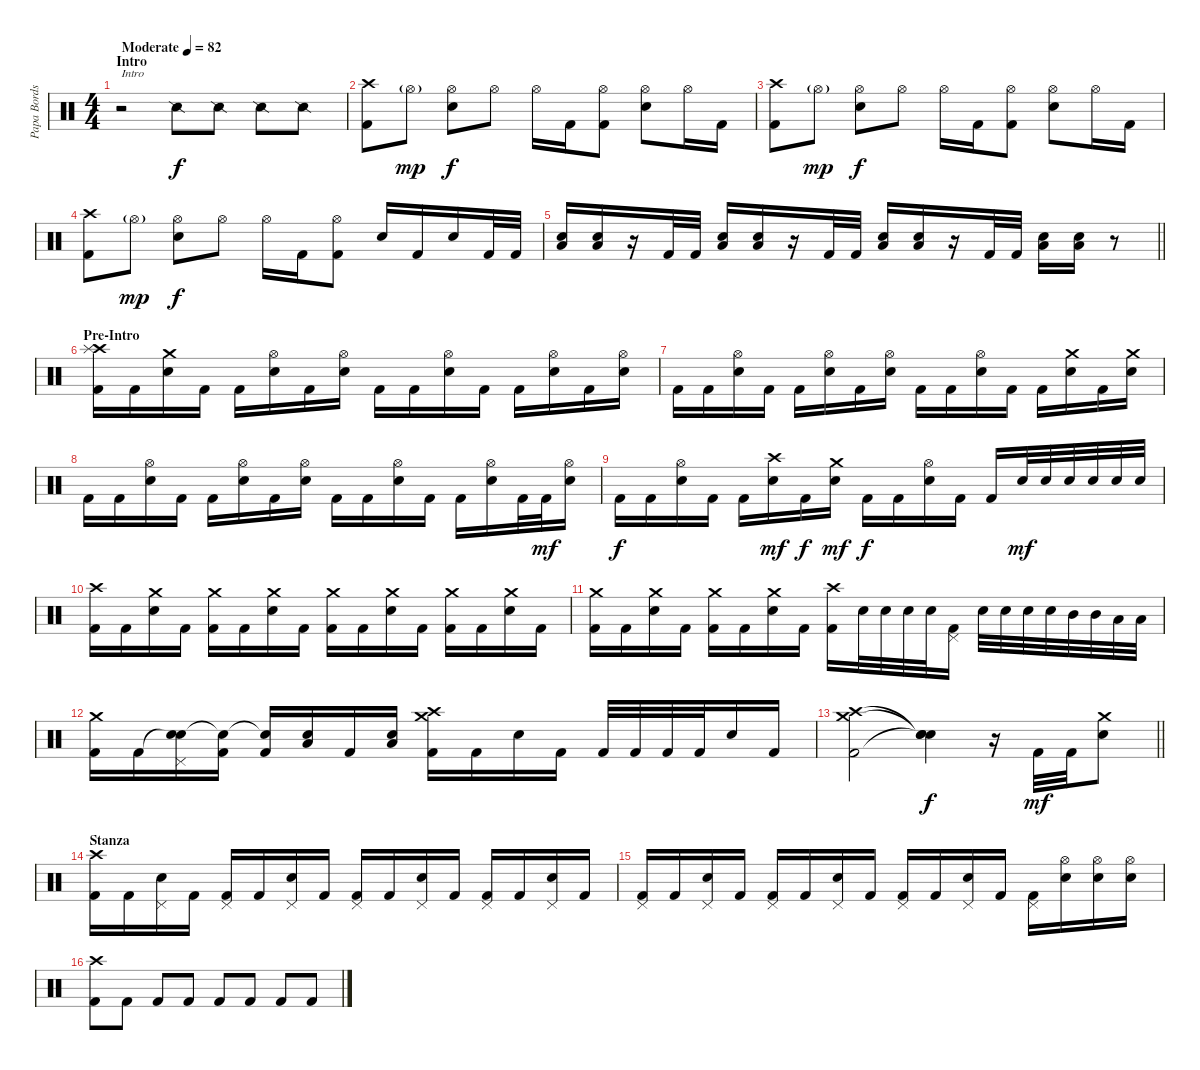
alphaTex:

\track ("Papa Bords" "Papa Bords") {instrument percussion}
\staff {score}
\articulation defaults
\ts (4 4)
\section ("" "Intro")
\tempo (82 "Moderate")
\clef neutral
\ks c
r.2{txt "Intro" dy f} "Snare (side stick) 2".8 "Snare (side stick) 2".8 "Snare (side stick) 2".8 "Snare (side stick) 2".8 |
("Crash high (hit)" "Kick (hit) 2").8 "Hi-Hat (open)"{g}.8{dy mp} ("Hi-Hat (open)" "Electric Snare (hit)").8{dy f} "Hi-Hat (open)".8 "Hi-Hat (open)".16 "Kick (hit) 2".16 ("Hi-Hat (open)" "Kick (hit) 2").8 ("Hi-Hat (open)" "Electric Snare (hit)").8 "Hi-Hat (open)".16 "Kick (hit) 2".16 |
("Crash high (hit)" "Kick (hit) 2").8 "Hi-Hat (open)"{g}.8{dy mp} ("Hi-Hat (open)" "Electric Snare (hit)").8{dy f} "Hi-Hat (open)".8 "Hi-Hat (open)".16 "Kick (hit) 2".16 ("Hi-Hat (open)" "Kick (hit) 2").8 ("Hi-Hat (open)" "Electric Snare (hit)").8 "Hi-Hat (open)".16 "Kick (hit) 2".16 |
("Crash high (hit)" "Kick (hit) 2").8 "Hi-Hat (open)"{g}.8{dy mp} ("Hi-Hat (open)" "Electric Snare (hit)").8{dy f} "Hi-Hat (open)".8 "Hi-Hat (open)".16 "Kick (hit) 2".16 ("Hi-Hat (open)" "Kick (hit) 2").8 "Electric Snare (hit)".16 "Kick (hit) 2".16 "Electric Snare (hit)".16 "Kick (hit) 2".32 "Kick (hit) 2".32 |
\barLineRight lightlight
("Low Floor Tom (hit)" "Electric Snare (hit)").16 ("Low Floor Tom (hit)" "Electric Snare (hit)").16 r.16 "Kick (hit) 2".32 "Kick (hit) 2".32 ("Low Floor Tom (hit)" "Electric Snare (hit)").16 ("Low Floor Tom (hit)" "Electric Snare (hit)").16 r.16 "Kick (hit) 2".32 "Kick (hit) 2".32 ("Low Floor Tom (hit)" "Electric Snare (hit)").16 ("Low Floor Tom (hit)" "Electric Snare (hit)").16 r.16 "Kick (hit) 2".32 "Kick (hit) 2".32 ("Low Floor Tom (hit)" "Electric Snare (hit)").16 ("Low Floor Tom (hit)" "Electric Snare (hit)").16 r.8 |
\section ("" "Pre-Intro")
("Crash high (hit)" "Splash (hit)" "Kick (hit) 2").16 "Kick (hit) 2".16 ("Crash medium (hit)" "Electric Snare (hit)").16 "Kick (hit) 2".16 "Kick (hit) 2".16 ("Hi-Hat (open)" "Electric Snare (hit)").16 "Kick (hit) 2".16 ("Hi-Hat (open)" "Electric Snare (hit)").16 "Kick (hit) 2".16 "Kick (hit) 2".16 ("Hi-Hat (open)" "Electric Snare (hit)").16 "Kick (hit) 2".16 "Kick (hit) 2".16 ("Hi-Hat (open)" "Electric Snare (hit)").16 "Kick (hit) 2".16 ("Hi-Hat (open)" "Electric Snare (hit)").16 |
"Kick (hit) 2".16 "Kick (hit) 2".16 ("Hi-Hat (open)" "Electric Snare (hit)").16 "Kick (hit) 2".16 "Kick (hit) 2".16 ("Hi-Hat (open)" "Electric Snare (hit)").16 "Kick (hit) 2".16 ("Hi-Hat (open)" "Electric Snare (hit)").16 "Kick (hit) 2".16 "Kick (hit) 2".16 ("Hi-Hat (open)" "Electric Snare (hit)").16 "Kick (hit) 2".16 "Kick (hit) 2".16 ("Crash medium (hit)" "Electric Snare (hit)").16 "Kick (hit) 2".16 ("Crash medium (hit)" "Electric Snare (hit)").16 |
"Kick (hit) 2".16 "Kick (hit) 2".16 ("Hi-Hat (open)" "Electric Snare (hit)").16 "Kick (hit) 2".16 "Kick (hit) 2".16 ("Hi-Hat (open)" "Electric Snare (hit)").16 "Kick (hit) 2".16 ("Hi-Hat (open)" "Electric Snare (hit)").16 "Kick (hit) 2".16 "Kick (hit) 2".16 ("Hi-Hat (open)" "Electric Snare (hit)").16 "Kick (hit) 2".16 "Kick (hit) 2".16 ("Hi-Hat (open)" "Electric Snare (hit)").16 "Kick (hit) 2".32 "Kick (hit) 2".32{dy mf} ("Hi-Hat (open)" "Electric Snare (hit)").16 |
"Kick (hit) 2".16{dy f} "Kick (hit) 2".16 ("Hi-Hat (open)" "Electric Snare (hit)").16 "Kick (hit) 2".16 "Kick (hit) 2".16 ("Crash high (hit)" "Electric Snare (hit)").16{dy mf} "Kick (hit) 2".16{dy f} ("Crash medium (hit)" "Electric Snare (hit)").16{dy mf} "Kick (hit) 2".16{dy f} "Kick (hit) 2".16 ("Hi-Hat (open)" "Electric Snare (hit)").16 "Kick (hit) 2".16 "Kick (hit) 2".16 "Electric Snare (hit)".32{dy mf} "Electric Snare (hit)".32 "Electric Snare (hit)".32 "Electric Snare (hit)".32 "Electric Snare (hit)".32 "Electric Snare (hit)".32 |
("Crash high (hit)" "Kick (hit) 2").16 "Kick (hit) 2".16 ("Crash medium (hit)" "Electric Snare (hit)").16 "Kick (hit) 2".16 ("Crash medium (hit)" "Kick (hit) 2").16 "Kick (hit) 2".16 ("Crash medium (hit)" "Electric Snare (hit)").16 "Kick (hit) 2".16 ("Crash medium (hit)" "Kick (hit) 2").16 "Kick (hit) 2".16 ("Crash medium (hit)" "Electric Snare (hit)").16 "Kick (hit) 2".16 ("Crash medium (hit)" "Kick (hit) 2").16 "Kick (hit) 2".16 ("Crash medium (hit)" "Electric Snare (hit)").16 "Kick (hit) 2".16 |
("Crash medium (hit)" "Kick (hit) 2").16 "Kick (hit) 2".16 ("Crash medium (hit)" "Electric Snare (hit)").16 "Kick (hit) 2".16 ("Crash medium (hit)" "Kick (hit) 2").16 "Kick (hit) 2".16 ("Crash medium (hit)" "Electric Snare (hit)").16 "Kick (hit) 2".16 ("Crash high (hit)" "Kick (hit) 2").16 "Electric Snare (hit)".32 "Electric Snare (hit)".32 "Electric Snare (hit)".32 "Electric Snare (hit)".32 ("Pedal Hi-Hat (hit)" "Kick (hit) 2").16 "Electric Snare (hit)".32 "Electric Snare (hit)".32 "Electric Snare (hit)".32 "Electric Snare (hit)".32 "Mid Tom (hit)".32 "Mid Tom (hit)".32 "Low Tom (hit)".32 "Low Floor Tom (hit)".32 |
("Crash medium (hit)" "Kick (hit) 2").16 "Kick (hit) 2".16 ("Snare (hit)"{t} "Pedal Hi-Hat (hit)" "Electric Snare (hit)").16 ("Snare (hit)"{t} "Kick (hit) 2").16 ("Snare (hit)"{t} "Kick (hit) 2").16 ("Low Floor Tom (hit)" "Electric Snare (hit)").16 "Kick (hit) 2".16 ("Low Floor Tom (hit)" "Electric Snare (hit)").16 ("Crash high (hit)" "Crash medium (hit)" "Kick (hit) 2").16 "Kick (hit) 2".16 "Electric Snare (hit)".16 "Kick (hit) 2".16 "Kick (hit) 2".32 "Kick (hit) 2".32 "Kick (hit) 2".32 "Kick (hit) 2".32 "Electric Snare (hit)".16 "Kick (hit) 2".16 |
\barLineRight lightlight
("Crash high (hit)" "Crash medium (hit)" "Kick (hit) 2").2 ("Snare (hit)"{t} "Snare (hit)"{t} "Snare (hit)"{t}).4{dy f} r.16 "Kick (hit) 2".32{dy mf} "Kick (hit) 2".32 ("Crash medium (hit)" "Electric Snare (hit)").8 |
\section ("" "Stanza")
("Crash high (hit)" "Kick (hit) 2").16 "Kick (hit) 2".16 ("Pedal Hi-Hat (hit)" "Electric Snare (hit)").16 "Kick (hit) 2".16 ("Pedal Hi-Hat (hit)" "Kick (hit) 2").16 "Kick (hit) 2".16 ("Pedal Hi-Hat (hit)" "Electric Snare (hit)").16 "Kick (hit) 2".16 ("Pedal Hi-Hat (hit)" "Kick (hit) 2").16 "Kick (hit) 2".16 ("Pedal Hi-Hat (hit)" "Electric Snare (hit)").16 "Kick (hit) 2".16 ("Pedal Hi-Hat (hit)" "Kick (hit) 2").16 "Kick (hit) 2".16 ("Pedal Hi-Hat (hit)" "Electric Snare (hit)").16 "Kick (hit) 2".16 |
("Pedal Hi-Hat (hit)" "Kick (hit) 2").16 "Kick (hit) 2".16 ("Pedal Hi-Hat (hit)" "Electric Snare (hit)").16 "Kick (hit) 2".16 ("Pedal Hi-Hat (hit)" "Kick (hit) 2").16 "Kick (hit) 2".16 ("Pedal Hi-Hat (hit)" "Electric Snare (hit)").16 "Kick (hit) 2".16 ("Pedal Hi-Hat (hit)" "Kick (hit) 2").16 "Kick (hit) 2".16 ("Pedal Hi-Hat (hit)" "Electric Snare (hit)").16 "Kick (hit) 2".16 ("Pedal Hi-Hat (hit)" "Kick (hit) 2").16 ("Hi-Hat (open)" "Electric Snare (hit)").16 ("Hi-Hat (open)" "Electric Snare (hit)").16 ("Hi-Hat (open)" "Electric Snare (hit)").16 |
("Crash high (hit)" "Kick (hit) 2").8 "Kick (hit) 2".8 "Kick (hit) 2".8 "Kick (hit) 2".8 "Kick (hit) 2".8 "Kick (hit) 2".8 "Kick (hit) 2".8 "Kick (hit) 2".8
